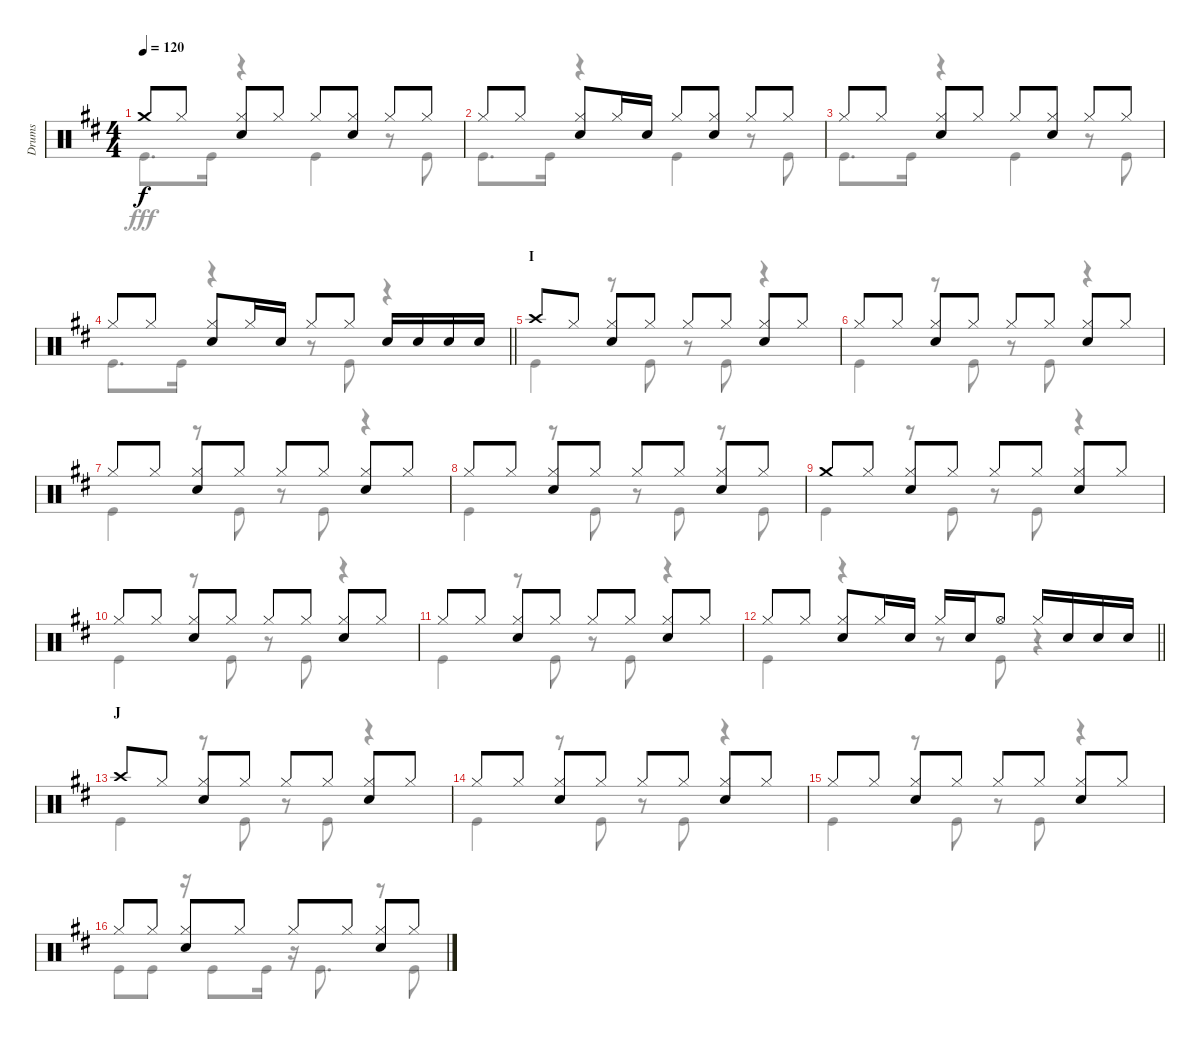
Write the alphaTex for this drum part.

\track ("Drums" "Drums") {instrument percussion}
\staff {score}
\articulation defaults
\voice
\ts (4 4)
\tempo 120
\clef neutral
\ks d "Crash medium (hit)".8{dy f} "Hi-Hat (closed)".8
("Hi-Hat (closed)" "Snare (hit) 2").8 "Hi-Hat (closed)".8 "Hi-Hat (closed)".8 ("Hi-Hat (closed)" "Snare (hit) 2").8 "Hi-Hat (closed)".8 "Hi-Hat (closed)".8 |
"Hi-Hat (closed)".8 "Hi-Hat (closed)".8 ("Hi-Hat (closed)" "Snare (hit) 2").8 "Hi-Hat (closed)".16 "Snare (hit) 2".16 "Hi-Hat (closed)".8 ("Hi-Hat (closed)" "Snare (hit) 2").8 "Hi-Hat (closed)".8 "Hi-Hat (closed)".8 |
"Hi-Hat (closed)".8 "Hi-Hat (closed)".8 ("Hi-Hat (closed)" "Snare (hit) 2").8 "Hi-Hat (closed)".8 "Hi-Hat (closed)".8 ("Hi-Hat (closed)" "Snare (hit) 2").8 "Hi-Hat (closed)".8 "Hi-Hat (closed)".8 |
\barLineRight lightlight "Hi-Hat (closed)".8 "Hi-Hat (closed)".8
("Hi-Hat (closed)" "Snare (hit) 2").8 "Hi-Hat (closed)".16 "Snare (hit) 2".16 "Hi-Hat (closed)".8 "Hi-Hat (closed)".8 "Snare (hit) 2".16 "Snare (hit) 2".16 "Snare (hit) 2".16 "Snare (hit) 2".16 |
\section ("" "I")
"Crash high (hit)".8 "Hi-Hat (closed)".8 ("Hi-Hat (closed)" "Snare (hit) 2").8 "Hi-Hat (closed)".8 "Hi-Hat (closed)".8 "Hi-Hat (closed)".8 ("Hi-Hat (closed)" "Snare (hit) 2").8 "Hi-Hat (closed)".8 |
"Hi-Hat (closed)".8 "Hi-Hat (closed)".8 ("Hi-Hat (closed)" "Snare (hit) 2").8 "Hi-Hat (closed)".8 "Hi-Hat (closed)".8 "Hi-Hat (closed)".8 ("Hi-Hat (closed)" "Snare (hit) 2").8 "Hi-Hat (closed)".8 |
"Hi-Hat (closed)".8 "Hi-Hat (closed)".8 ("Hi-Hat (closed)" "Snare (hit) 2").8 "Hi-Hat (closed)".8 "Hi-Hat (closed)".8 "Hi-Hat (closed)".8 ("Hi-Hat (closed)" "Snare (hit) 2").8 "Hi-Hat (closed)".8 |
"Hi-Hat (closed)".8 "Hi-Hat (closed)".8 ("Hi-Hat (closed)" "Snare (hit) 2").8 "Hi-Hat (closed)".8 "Hi-Hat (closed)".8 "Hi-Hat (closed)".8 ("Hi-Hat (closed)" "Snare (hit) 2").8 "Hi-Hat (closed)".8 |
"Crash medium (hit)".8 "Hi-Hat (closed)".8 ("Hi-Hat (closed)" "Snare (hit) 2").8 "Hi-Hat (closed)".8 "Hi-Hat (closed)".8 "Hi-Hat (closed)".8 ("Hi-Hat (closed)" "Snare (hit) 2").8 "Hi-Hat (closed)".8 |
"Hi-Hat (closed)".8 "Hi-Hat (closed)".8 ("Hi-Hat (closed)" "Snare (hit) 2").8 "Hi-Hat (closed)".8 "Hi-Hat (closed)".8 "Hi-Hat (closed)".8 ("Hi-Hat (closed)" "Snare (hit) 2").8 "Hi-Hat (closed)".8 |
"Hi-Hat (closed)".8 "Hi-Hat (closed)".8 ("Hi-Hat (closed)" "Snare (hit) 2").8 "Hi-Hat (closed)".8 "Hi-Hat (closed)".8 "Hi-Hat (closed)".8 ("Hi-Hat (closed)" "Snare (hit) 2").8 "Hi-Hat (closed)".8 |
\barLineRight lightlight "Hi-Hat (closed)".8 "Hi-Hat (closed)".8
("Hi-Hat (closed)" "Snare (hit) 2").8 "Hi-Hat (closed)".16 "Snare (hit) 2".16 "Hi-Hat (closed)".16 "Snare (hit) 2".16 "Hi-Hat (open)".8 "Hi-Hat (closed)".16 "Snare (hit) 2".16 "Snare (hit) 2".16 "Snare (hit) 2".16 |
\section ("" "J")
"Crash high (hit)".8 "Hi-Hat (closed)".8 ("Hi-Hat (closed)" "Snare (hit) 2").8 "Hi-Hat (closed)".8 "Hi-Hat (closed)".8 "Hi-Hat (closed)".8 ("Hi-Hat (closed)" "Snare (hit) 2").8 "Hi-Hat (closed)".8 |
"Hi-Hat (closed)".8 "Hi-Hat (closed)".8 ("Hi-Hat (closed)" "Snare (hit) 2").8 "Hi-Hat (closed)".8 "Hi-Hat (closed)".8 "Hi-Hat (closed)".8 ("Hi-Hat (closed)" "Snare (hit) 2").8 "Hi-Hat (closed)".8 |
"Hi-Hat (closed)".8 "Hi-Hat (closed)".8 ("Hi-Hat (closed)" "Snare (hit) 2").8 "Hi-Hat (closed)".8 "Hi-Hat (closed)".8 "Hi-Hat (closed)".8 ("Hi-Hat (closed)" "Snare (hit) 2").8 "Hi-Hat (closed)".8 |
"Hi-Hat (closed)".8 "Hi-Hat (closed)".8 ("Hi-Hat (closed)" "Snare (hit) 2").8 "Hi-Hat (closed)".8 "Hi-Hat (closed)".8 "Hi-Hat (closed)".8 ("Hi-Hat (closed)" "Snare (hit) 2").8 "Hi-Hat (closed)".8
\voice
\clef neutral
\ottava regular
\simile none
\ks d "Kick (hit)".8{d dy fff} "Kick (hit)".16
r.4 "Kick (hit)".4 r.8 "Kick (hit)".8 |
"Kick (hit)".8{d} "Kick (hit)".16 r.4 "Kick (hit)".4 r.8 "Kick (hit)".8 |
"Kick (hit)".8{d} "Kick (hit)".16 r.4 "Kick (hit)".4 r.8 "Kick (hit)".8 |
\barLineRight lightlight "Kick (hit)".8{d} "Kick (hit)".16
r.4 r.8 "Kick (hit)".8 r.4 |
"Kick (hit)".4 r.8 "Kick (hit)".8 r.8 "Kick (hit)".8 r.4 |
"Kick (hit)".4 r.8 "Kick (hit)".8 r.8 "Kick (hit)".8 r.4 |
"Kick (hit)".4 r.8 "Kick (hit)".8 r.8 "Kick (hit)".8 r.4 |
"Kick (hit)".4 r.8 "Kick (hit)".8 r.8 "Kick (hit)".8 r.8 "Kick (hit)".8 |
"Kick (hit)".4 r.8 "Kick (hit)".8 r.8 "Kick (hit)".8 r.4 |
"Kick (hit)".4 r.8 "Kick (hit)".8 r.8 "Kick (hit)".8 r.4 |
"Kick (hit)".4 r.8 "Kick (hit)".8 r.8 "Kick (hit)".8 r.4 |
\barLineRight lightlight "Kick (hit)".4
r.4 r.8 "Kick (hit)".8 r.4 |
"Kick (hit)".4 r.8 "Kick (hit)".8 r.8 "Kick (hit)".8 r.4 |
"Kick (hit)".4 r.8 "Kick (hit)".8 r.8 "Kick (hit)".8 r.4 |
"Kick (hit)".4 r.8 "Kick (hit)".8 r.8 "Kick (hit)".8 r.4 |
"Kick (hit)".8 "Kick (hit)".8 r.16 "Kick (hit)".8 "Kick (hit)".16 r.16 "Kick (hit)".8{d} r.8 "Kick (hit)".8
